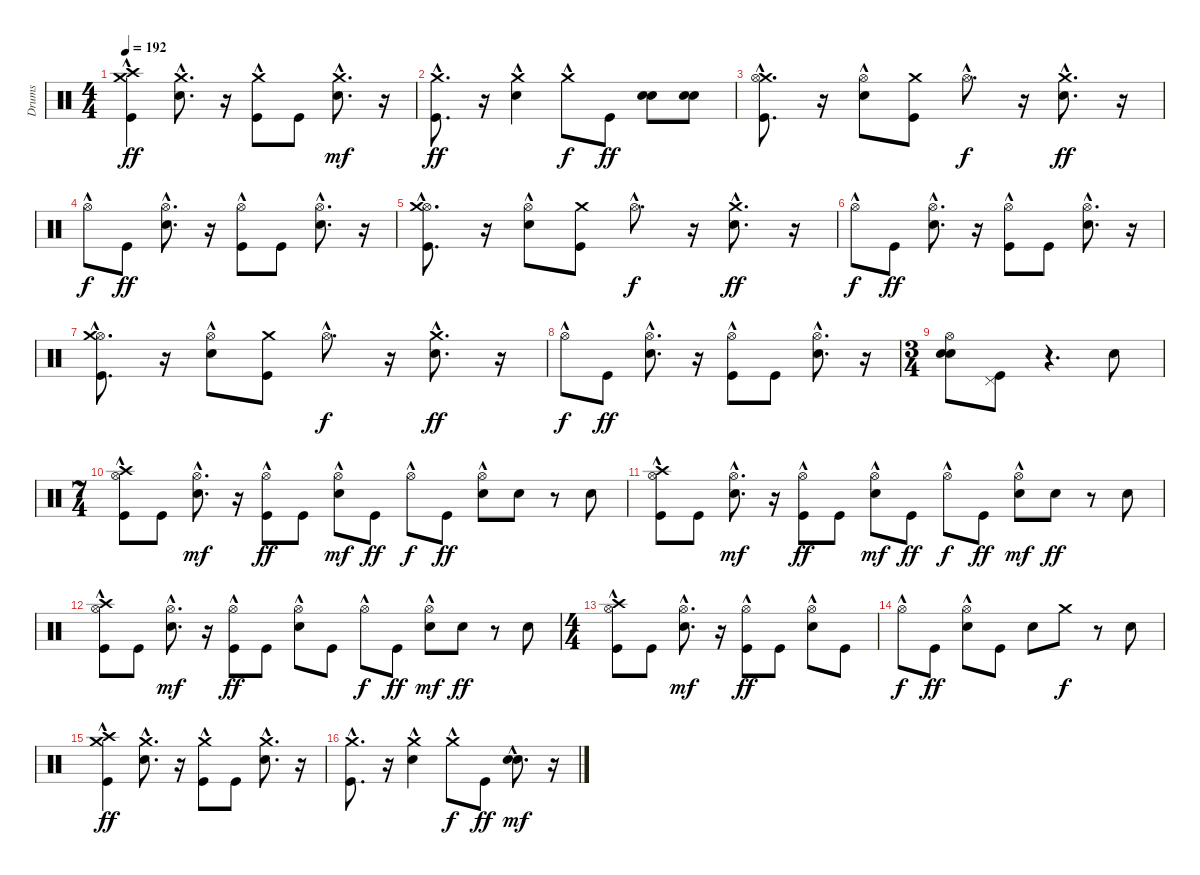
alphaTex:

\track ("Drums" "Drums") {instrument percussion}
\staff {score}
\articulation defaults
\ts (4 4)
\tempo 192
\clef neutral
\ks c
("Crash high (hit)"{hac} "Kick (hit)"{hac} "Crash medium (hit)"{hac}).4{dy ff} ("Crash medium (hit)"{hac} "Electric Snare (hit)"{hac}).8{d} r.16 ("Kick (hit)" "Crash medium (hit)"{hac}).8 "Kick (hit)".8 ("Electric Snare (hit)"{hac} "Crash medium (hit)"{hac}).8{d dy mf} r.16 |
("Crash medium (hit)"{hac} "Kick (hit)"{hac}).8{d dy ff} r.16 ("Crash medium (hit)"{hac} "Electric Snare (hit)").4 "Crash medium (hit)"{hac}.8{dy f} "Kick (hit)".8{dy ff} ("Snare (hit) 2" "Electric Snare (hit)").8 ("Snare (hit) 2" "Electric Snare (hit)").8 |
("Kick (hit)"{hac} "Crash medium (hit)"{hac} "Hi-Hat (open)"{hac}).8{d} r.16 ("Electric Snare (hit)" "Hi-Hat (open)"{hac}).8 ("Crash medium (hit)" "Kick (hit)").8 "Hi-Hat (open)"{hac}.8{d dy f} r.16 ("Crash medium (hit)"{hac} "Electric Snare (hit)"{hac}).8{d dy ff} r.16 |
"Hi-Hat (open)"{hac}.8{dy f} "Kick (hit)".8{dy ff} ("Electric Snare (hit)"{hac} "Hi-Hat (open)"{hac}).8{d} r.16 ("Kick (hit)" "Hi-Hat (open)"{hac}).8 "Kick (hit)".8 ("Hi-Hat (open)"{hac} "Electric Snare (hit)"{hac}).8{d} r.16 |
("Kick (hit)"{hac} "Hi-Hat (open)"{hac} "Crash medium (hit)"{hac}).8{d} r.16 ("Hi-Hat (open)"{hac} "Electric Snare (hit)").8 ("Crash medium (hit)" "Kick (hit)").8 "Hi-Hat (open)"{hac}.8{d dy f} r.16 ("Electric Snare (hit)"{hac} "Crash medium (hit)"{hac}).8{d dy ff} r.16 |
"Hi-Hat (open)"{hac}.8{dy f} "Kick (hit)".8{dy ff} ("Electric Snare (hit)"{hac} "Hi-Hat (open)"{hac}).8{d} r.16 ("Kick (hit)" "Hi-Hat (open)"{hac}).8 "Kick (hit)".8 ("Electric Snare (hit)"{hac} "Hi-Hat (open)"{hac}).8{d} r.16 |
("Kick (hit)"{hac} "Hi-Hat (open)"{hac} "Crash medium (hit)"{hac}).8{d} r.16 ("Hi-Hat (open)"{hac} "Electric Snare (hit)").8 ("Crash medium (hit)" "Kick (hit)").8 "Hi-Hat (open)"{hac}.8{d dy f} r.16 ("Crash medium (hit)"{hac} "Electric Snare (hit)"{hac}).8{d dy ff} r.16 |
"Hi-Hat (open)"{hac}.8{dy f} "Kick (hit)".8{dy ff} ("Electric Snare (hit)"{hac} "Hi-Hat (open)"{hac}).8{d} r.16 ("Kick (hit)" "Hi-Hat (open)"{hac}).8 "Kick (hit)".8 ("Hi-Hat (open)"{hac} "Electric Snare (hit)"{hac}).8{d} r.16 |
\ts (3 4)
("Hi-Hat (open)" "Snare (hit) 2" "Electric Snare (hit)").8 ("Pedal Hi-Hat (hit)" "Kick (hit)").8 r.4{d} "Electric Snare (hit)".8 |
\ts (7 4)
("Crash high (hit)"{hac} "Hi-Hat (open)"{hac} "Kick (hit)").8 "Kick (hit)".8 ("Electric Snare (hit)"{hac} "Hi-Hat (open)"{hac}).8{d dy mf} r.16 ("Kick (hit)" "Hi-Hat (open)"{hac}).8{dy ff} "Kick (hit)".8 ("Electric Snare (hit)" "Hi-Hat (open)"{hac}).8{dy mf} "Kick (hit)".8{dy ff} "Hi-Hat (open)"{hac}.8{dy f} "Kick (hit)".8{dy ff} ("Hi-Hat (open)"{hac} "Electric Snare (hit)").8 "Electric Snare (hit)".8 r.8 "Electric Snare (hit)".8 |
("Hi-Hat (open)"{hac} "Crash high (hit)"{hac} "Kick (hit)").8 "Kick (hit)".8 ("Electric Snare (hit)"{hac} "Hi-Hat (open)"{hac}).8{d dy mf} r.16 ("Hi-Hat (open)"{hac} "Kick (hit)").8{dy ff} "Kick (hit)".8 ("Electric Snare (hit)" "Hi-Hat (open)"{hac}).8{dy mf} "Kick (hit)".8{dy ff} "Hi-Hat (open)"{hac}.8{dy f} "Kick (hit)".8{dy ff} ("Electric Snare (hit)" "Hi-Hat (open)"{hac}).8{dy mf} "Electric Snare (hit)".8{dy ff} r.8 "Electric Snare (hit)".8 |
("Hi-Hat (open)"{hac} "Crash high (hit)"{hac} "Kick (hit)").8 "Kick (hit)".8 ("Electric Snare (hit)"{hac} "Hi-Hat (open)"{hac}).8{d dy mf} r.16 ("Hi-Hat (open)"{hac} "Kick (hit)").8{dy ff} "Kick (hit)".8 ("Hi-Hat (open)"{hac} "Electric Snare (hit)").8 "Kick (hit)".8 "Hi-Hat (open)"{hac}.8{dy f} "Kick (hit)".8{dy ff} ("Electric Snare (hit)" "Hi-Hat (open)"{hac}).8{dy mf} "Electric Snare (hit)".8{dy ff} r.8 "Electric Snare (hit)".8 |
\ts (4 4)
("Kick (hit)" "Crash high (hit)"{hac} "Hi-Hat (open)"{hac}).8 "Kick (hit)".8 ("Electric Snare (hit)"{hac} "Hi-Hat (open)"{hac}).8{d dy mf} r.16 ("Kick (hit)" "Hi-Hat (open)"{hac}).8{dy ff} "Kick (hit)".8 ("Hi-Hat (open)"{hac} "Electric Snare (hit)").8 "Kick (hit)".8 |
"Hi-Hat (open)"{hac}.8{dy f} "Kick (hit)".8{dy ff} ("Hi-Hat (open)"{hac} "Electric Snare (hit)").8 "Kick (hit)".8 "Electric Snare (hit)".8 "Crash medium (hit)".8{dy f} r.8 "Electric Snare (hit)".8 |
("Crash medium (hit)"{hac} "Crash high (hit)"{hac} "Kick (hit)"{hac}).4{dy ff} ("Crash medium (hit)"{hac} "Electric Snare (hit)"{hac}).8{d} r.16 ("Kick (hit)" "Crash medium (hit)"{hac}).8 "Kick (hit)".8 ("Crash medium (hit)"{hac} "Electric Snare (hit)"{hac}).8{d} r.16 |
("Kick (hit)"{hac} "Crash medium (hit)"{hac}).8{d} r.16 ("Crash medium (hit)"{hac} "Electric Snare (hit)").4 "Crash medium (hit)"{hac}.8{dy f} "Kick (hit)".8{dy ff} ("Electric Snare (hit)"{hac} "Snare (hit) 2"{hac}).8{d dy mf} r.16
